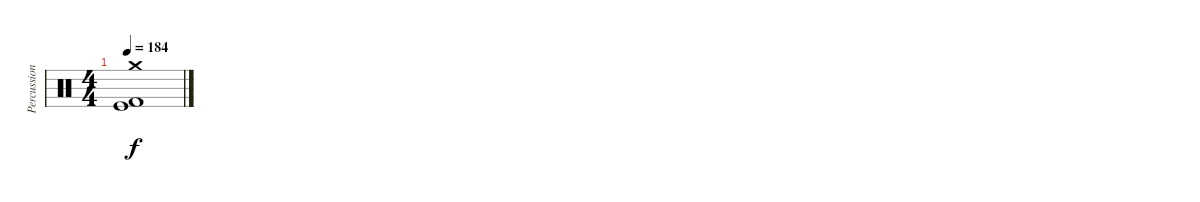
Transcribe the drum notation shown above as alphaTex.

\track ("Percussion" "Percussion") {instrument percussion}
\staff {score}
\articulation defaults
\ts (4 4)
\tempo 184
\clef neutral
\ks c
("Crash medium (hit)" "Kick (hit)" "Kick (hit) 2").1{dy f}
